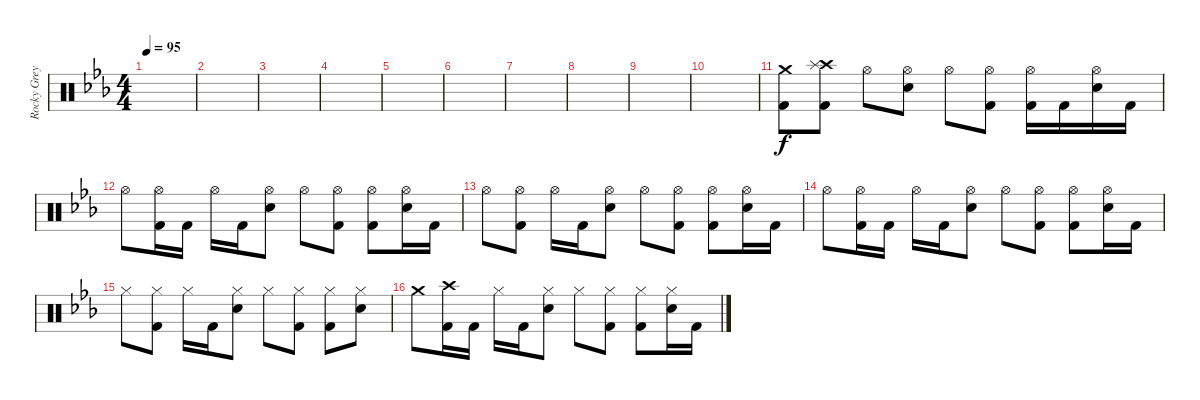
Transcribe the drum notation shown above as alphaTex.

\track ("Rocky Grey" "Rocky Grey") {instrument percussion}
\staff {score}
\articulation defaults
\ts (4 4)
\tempo 95
\clef neutral
\ks eb
|
|
|
|
|
|
|
|
|
|
("Crash medium (hit)" "Kick (hit) 2").8 ("Crash high (hit)" "Splash (hit)" "Kick (hit) 2").8 "Hi-Hat (open)".8 ("Hi-Hat (open)" "Snare (hit) 2").8 "Hi-Hat (open)".8 ("Hi-Hat (open)" "Kick (hit) 2").8 ("Hi-Hat (open)" "Kick (hit) 2").16 "Kick (hit) 2".16 ("Hi-Hat (open)" "Snare (hit) 2").16 "Kick (hit) 2".16 |
"Hi-Hat (open)".8 ("Hi-Hat (open)" "Kick (hit) 2").16 "Kick (hit) 2".16 "Hi-Hat (open)".16 "Kick (hit) 2".16 ("Hi-Hat (open)" "Snare (hit) 2").8 "Hi-Hat (open)".8 ("Hi-Hat (open)" "Kick (hit) 2").8 ("Hi-Hat (open)" "Kick (hit) 2").8 ("Hi-Hat (open)" "Snare (hit) 2").16 "Kick (hit) 2".16 |
"Hi-Hat (open)".8 ("Hi-Hat (open)" "Kick (hit) 2").8 "Hi-Hat (open)".16 "Kick (hit) 2".16 ("Hi-Hat (open)" "Snare (hit) 2").8 "Hi-Hat (open)".8 ("Hi-Hat (open)" "Kick (hit) 2").8 ("Hi-Hat (open)" "Kick (hit) 2").8 ("Hi-Hat (open)" "Snare (hit) 2").16 "Kick (hit) 2".16 |
"Hi-Hat (open)".8 ("Hi-Hat (open)" "Kick (hit) 2").16 "Kick (hit) 2".16 "Hi-Hat (open)".16 "Kick (hit) 2".16 ("Hi-Hat (open)" "Snare (hit) 2").8 "Hi-Hat (open)".8 ("Hi-Hat (open)" "Kick (hit) 2").8 ("Hi-Hat (open)" "Kick (hit) 2").8 ("Hi-Hat (open)" "Snare (hit) 2").16 "Kick (hit) 2".16 |
"Hi-Hat (closed)".8 ("Hi-Hat (closed)" "Kick (hit) 2").8 "Hi-Hat (closed)".16 "Kick (hit) 2".16 ("Hi-Hat (closed)" "Snare (hit) 2").8 "Hi-Hat (closed)".8 ("Hi-Hat (closed)" "Kick (hit) 2").8 ("Hi-Hat (closed)" "Kick (hit) 2").8 ("Hi-Hat (closed)" "Snare (hit) 2").8 |
"Crash medium (hit)".8 ("Crash high (hit)" "Kick (hit) 2").16 "Kick (hit) 2".16 "Hi-Hat (closed)".16 "Kick (hit) 2".16 ("Hi-Hat (closed)" "Snare (hit) 2").8 "Hi-Hat (closed)".8 ("Hi-Hat (closed)" "Kick (hit) 2").8 ("Hi-Hat (closed)" "Kick (hit) 2").8 ("Hi-Hat (closed)" "Snare (hit) 2").16 "Kick (hit) 2".16
